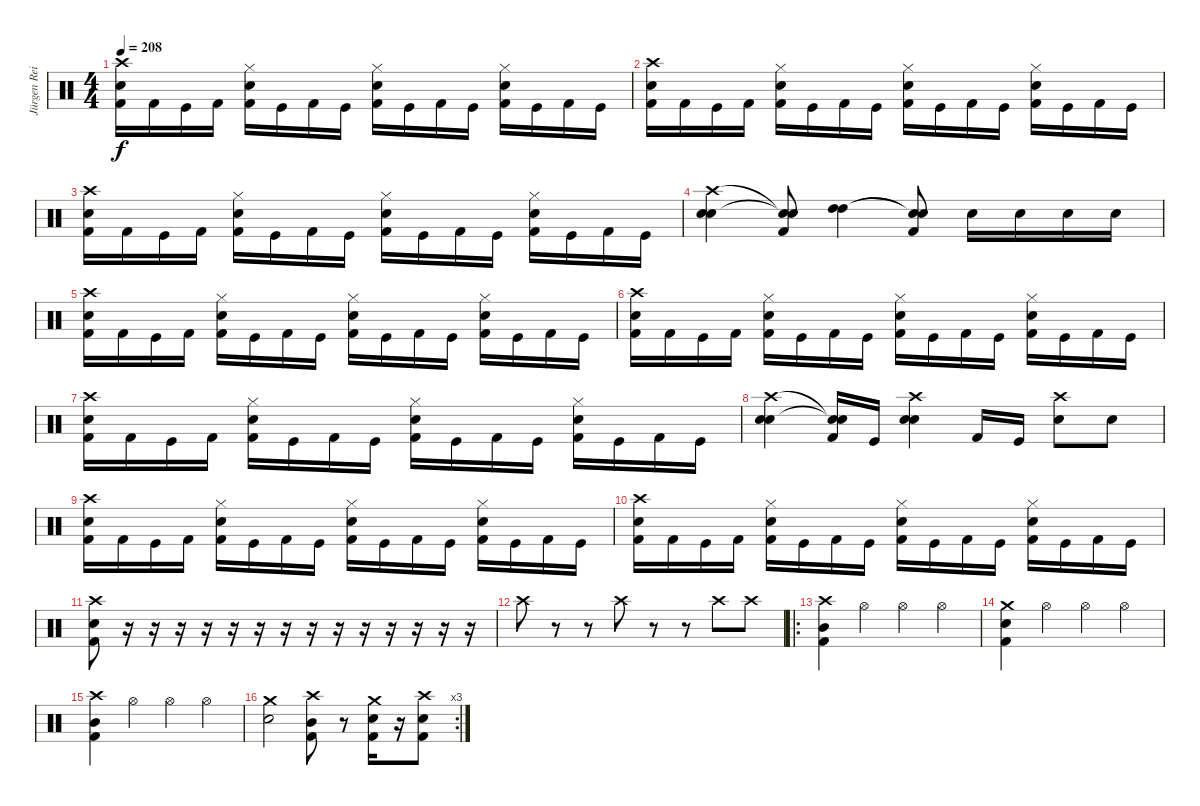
\track ("Jürgen Reil" "Jürgen Rei") {instrument percussion}
\staff {score}
\articulation defaults
\ts (4 4)
\tempo 208
\clef neutral
\ks c
("Crash high (hit)" "Electric Snare (hit)" "Kick (hit) 2").16{dy f} "Kick (hit) 2".16 "Kick (hit)".16 "Kick (hit) 2".16 ("Hi-Hat (closed)" "Electric Snare (hit)" "Kick (hit) 2").16 "Kick (hit)".16 "Kick (hit) 2".16 "Kick (hit)".16 ("Hi-Hat (closed)" "Electric Snare (hit)" "Kick (hit) 2").16 "Kick (hit)".16 "Kick (hit) 2".16 "Kick (hit)".16 ("Hi-Hat (closed)" "Electric Snare (hit)" "Kick (hit) 2").16 "Kick (hit)".16 "Kick (hit) 2".16 "Kick (hit)".16 |
("Crash high (hit)" "Electric Snare (hit)" "Kick (hit) 2").16 "Kick (hit) 2".16 "Kick (hit)".16 "Kick (hit) 2".16 ("Hi-Hat (closed)" "Electric Snare (hit)" "Kick (hit) 2").16 "Kick (hit)".16 "Kick (hit) 2".16 "Kick (hit)".16 ("Hi-Hat (closed)" "Electric Snare (hit)" "Kick (hit) 2").16 "Kick (hit)".16 "Kick (hit) 2".16 "Kick (hit)".16 ("Hi-Hat (closed)" "Electric Snare (hit)" "Kick (hit) 2").16 "Kick (hit)".16 "Kick (hit) 2".16 "Kick (hit)".16 |
("Crash high (hit)" "Electric Snare (hit)" "Kick (hit) 2").16 "Kick (hit) 2".16 "Kick (hit)".16 "Kick (hit) 2".16 ("Hi-Hat (closed)" "Electric Snare (hit)" "Kick (hit) 2").16 "Kick (hit)".16 "Kick (hit) 2".16 "Kick (hit)".16 ("Hi-Hat (closed)" "Electric Snare (hit)" "Kick (hit) 2").16 "Kick (hit)".16 "Kick (hit) 2".16 "Kick (hit)".16 ("Hi-Hat (closed)" "Electric Snare (hit)" "Kick (hit) 2").16 "Kick (hit)".16 "Kick (hit) 2".16 "Kick (hit)".16 |
("Crash high (hit)" "Electric Snare (hit)" "Electric Snare (hit)").4 ("Snare (hit)"{t} "Snare (hit)"{t} "Kick (hit) 2").8 ("High Tom (hit)" "High Tom (hit)").4 ("Snare (hit)"{t} "Snare (hit)"{t} "Kick (hit) 2").8 "Electric Snare (hit)".16 "Electric Snare (hit)".16 "Electric Snare (hit)".16 "Electric Snare (hit)".16 |
("Crash high (hit)" "Electric Snare (hit)" "Kick (hit) 2").16 "Kick (hit) 2".16 "Kick (hit)".16 "Kick (hit) 2".16 ("Hi-Hat (closed)" "Electric Snare (hit)" "Kick (hit) 2").16 "Kick (hit)".16 "Kick (hit) 2".16 "Kick (hit)".16 ("Hi-Hat (closed)" "Electric Snare (hit)" "Kick (hit) 2").16 "Kick (hit)".16 "Kick (hit) 2".16 "Kick (hit)".16 ("Hi-Hat (closed)" "Electric Snare (hit)" "Kick (hit) 2").16 "Kick (hit)".16 "Kick (hit) 2".16 "Kick (hit)".16 |
("Crash high (hit)" "Electric Snare (hit)" "Kick (hit) 2").16 "Kick (hit) 2".16 "Kick (hit)".16 "Kick (hit) 2".16 ("Hi-Hat (closed)" "Electric Snare (hit)" "Kick (hit) 2").16 "Kick (hit)".16 "Kick (hit) 2".16 "Kick (hit)".16 ("Hi-Hat (closed)" "Electric Snare (hit)" "Kick (hit) 2").16 "Kick (hit)".16 "Kick (hit) 2".16 "Kick (hit)".16 ("Hi-Hat (closed)" "Electric Snare (hit)" "Kick (hit) 2").16 "Kick (hit)".16 "Kick (hit) 2".16 "Kick (hit)".16 |
("Crash high (hit)" "Electric Snare (hit)" "Kick (hit) 2").16 "Kick (hit) 2".16 "Kick (hit)".16 "Kick (hit) 2".16 ("Hi-Hat (closed)" "Electric Snare (hit)" "Kick (hit) 2").16 "Kick (hit)".16 "Kick (hit) 2".16 "Kick (hit)".16 ("Hi-Hat (closed)" "Electric Snare (hit)" "Kick (hit) 2").16 "Kick (hit)".16 "Kick (hit) 2".16 "Kick (hit)".16 ("Hi-Hat (closed)" "Electric Snare (hit)" "Kick (hit) 2").16 "Kick (hit)".16 "Kick (hit) 2".16 "Kick (hit)".16 |
("Crash high (hit)" "Electric Snare (hit)" "Electric Snare (hit)").4 ("Snare (hit)"{t} "Snare (hit)"{t} "Kick (hit) 2").16 "Kick (hit)".16 ("Crash high (hit)" "Electric Snare (hit)" "Electric Snare (hit)").4 "Kick (hit) 2".16 "Kick (hit)".16 ("Crash high (hit)" "Electric Snare (hit)").8 "Electric Snare (hit)".8 |
("Crash high (hit)" "Electric Snare (hit)" "Kick (hit) 2").16 "Kick (hit) 2".16 "Kick (hit)".16 "Kick (hit) 2".16 ("Hi-Hat (closed)" "Electric Snare (hit)" "Kick (hit) 2").16 "Kick (hit)".16 "Kick (hit) 2".16 "Kick (hit)".16 ("Hi-Hat (closed)" "Electric Snare (hit)" "Kick (hit) 2").16 "Kick (hit)".16 "Kick (hit) 2".16 "Kick (hit)".16 ("Hi-Hat (closed)" "Electric Snare (hit)" "Kick (hit) 2").16 "Kick (hit)".16 "Kick (hit) 2".16 "Kick (hit)".16 |
("Crash high (hit)" "Electric Snare (hit)" "Kick (hit) 2").16 "Kick (hit) 2".16 "Kick (hit)".16 "Kick (hit) 2".16 ("Hi-Hat (closed)" "Electric Snare (hit)" "Kick (hit) 2").16 "Kick (hit)".16 "Kick (hit) 2".16 "Kick (hit)".16 ("Hi-Hat (closed)" "Electric Snare (hit)" "Kick (hit) 2").16 "Kick (hit)".16 "Kick (hit) 2".16 "Kick (hit)".16 ("Hi-Hat (closed)" "Electric Snare (hit)" "Kick (hit) 2").16 "Kick (hit)".16 "Kick (hit) 2".16 "Kick (hit)".16 |
("Crash high (hit)" "Electric Snare (hit)" "Kick (hit) 2").8 r.16 r.16 r.16 r.16 r.16 r.16 r.16 r.16 r.16 r.16 r.16 r.16 r.16 r.16 |
"Crash high (hit)".8 r.8 r.8 "Crash high (hit)".8 r.8 r.8 "Crash high (hit)".8 "Crash high (hit)".8 |
\ro
("Crash high (hit)" "Mid Tom (hit)" "Kick (hit) 2").4 "Hi-Hat (open)".4 "Hi-Hat (open)".4 "Hi-Hat (open)".4 |
("Crash medium (hit)" "Kick (hit) 2" "Electric Snare (hit)").4 "Hi-Hat (open)".4 "Hi-Hat (open)".4 "Hi-Hat (open)".4 |
("Crash high (hit)" "Mid Tom (hit)" "Kick (hit) 2").4 "Hi-Hat (open)".4 "Hi-Hat (open)".4 "Hi-Hat (open)".4 |
\rc 3
("Crash medium (hit)" "Electric Snare (hit)").2 ("Crash high (hit)" "Mid Tom (hit)" "Kick (hit) 2").8 r.8 ("Crash medium (hit)" "Electric Snare (hit)" "Kick (hit) 2").16 r.16 ("Crash high (hit)" "Electric Snare (hit)" "Kick (hit) 2").8
